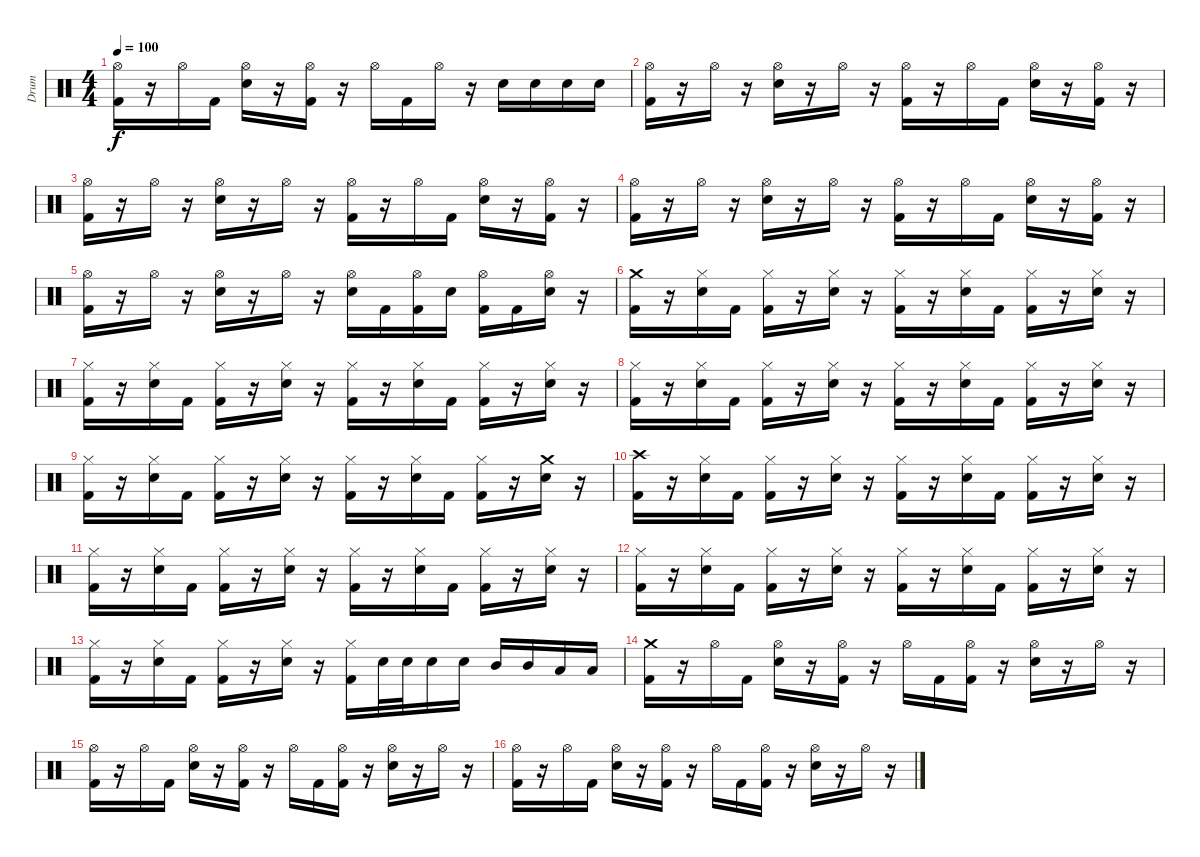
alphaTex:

\track ("Drum" "Drum") {instrument percussion}
\staff {score}
\articulation defaults
\ts (4 4)
\tempo 100
\clef neutral
\ks c
("Hi-Hat (open)" "Kick (hit) 2").16{dy f} r.16 "Hi-Hat (open)".16 "Kick (hit) 2".16 ("Hi-Hat (open)" "Electric Snare (hit)").16 r.16 ("Hi-Hat (open)" "Kick (hit) 2").16 r.16 "Hi-Hat (open)".16 "Kick (hit) 2".16 "Hi-Hat (open)".16 r.16 "Electric Snare (hit)".16 "Electric Snare (hit)".16 "Electric Snare (hit)".16 "Electric Snare (hit)".16 |
("Hi-Hat (open)" "Kick (hit) 2").16 r.16 "Hi-Hat (open)".16 r.16 ("Hi-Hat (open)" "Electric Snare (hit)").16 r.16 "Hi-Hat (open)".16 r.16 ("Hi-Hat (open)" "Kick (hit) 2").16 r.16 "Hi-Hat (open)".16 "Kick (hit) 2".16 ("Hi-Hat (open)" "Electric Snare (hit)").16 r.16 ("Hi-Hat (open)" "Kick (hit) 2").16 r.16 |
("Hi-Hat (open)" "Kick (hit) 2").16 r.16 "Hi-Hat (open)".16 r.16 ("Hi-Hat (open)" "Electric Snare (hit)").16 r.16 "Hi-Hat (open)".16 r.16 ("Hi-Hat (open)" "Kick (hit) 2").16 r.16 "Hi-Hat (open)".16 "Kick (hit) 2".16 ("Hi-Hat (open)" "Electric Snare (hit)").16 r.16 ("Hi-Hat (open)" "Kick (hit) 2").16 r.16 |
("Hi-Hat (open)" "Kick (hit) 2").16 r.16 "Hi-Hat (open)".16 r.16 ("Hi-Hat (open)" "Electric Snare (hit)").16 r.16 "Hi-Hat (open)".16 r.16 ("Hi-Hat (open)" "Kick (hit) 2").16 r.16 "Hi-Hat (open)".16 "Kick (hit) 2".16 ("Hi-Hat (open)" "Electric Snare (hit)").16 r.16 ("Hi-Hat (open)" "Kick (hit) 2").16 r.16 |
("Hi-Hat (open)" "Kick (hit) 2").16 r.16 "Hi-Hat (open)".16 r.16 ("Hi-Hat (open)" "Electric Snare (hit)").16 r.16 "Hi-Hat (open)".16 r.16 ("Hi-Hat (open)" "Electric Snare (hit)").16 "Kick (hit) 2".16 ("Hi-Hat (open)" "Kick (hit) 2").16 "Electric Snare (hit)".16 ("Hi-Hat (open)" "Kick (hit) 2").16 "Kick (hit) 2".16 ("Hi-Hat (open)" "Electric Snare (hit)").16 r.16 |
("Crash medium (hit)" "Kick (hit) 2").16 r.16 ("Hi-Hat (closed)" "Electric Snare (hit)").16 "Kick (hit) 2".16 ("Hi-Hat (closed)" "Kick (hit) 2").16 r.16 ("Hi-Hat (closed)" "Electric Snare (hit)").16 r.16 ("Hi-Hat (closed)" "Kick (hit) 2").16 r.16 ("Hi-Hat (closed)" "Electric Snare (hit)").16 "Kick (hit) 2".16 ("Hi-Hat (closed)" "Kick (hit) 2").16 r.16 ("Hi-Hat (closed)" "Electric Snare (hit)").16 r.16 |
("Hi-Hat (closed)" "Kick (hit) 2").16 r.16 ("Hi-Hat (closed)" "Electric Snare (hit)").16 "Kick (hit) 2".16 ("Hi-Hat (closed)" "Kick (hit) 2").16 r.16 ("Hi-Hat (closed)" "Electric Snare (hit)").16 r.16 ("Hi-Hat (closed)" "Kick (hit) 2").16 r.16 ("Hi-Hat (closed)" "Electric Snare (hit)").16 "Kick (hit) 2".16 ("Hi-Hat (closed)" "Kick (hit) 2").16 r.16 ("Hi-Hat (closed)" "Electric Snare (hit)").16 r.16 |
("Hi-Hat (closed)" "Kick (hit) 2").16 r.16 ("Hi-Hat (closed)" "Electric Snare (hit)").16 "Kick (hit) 2".16 ("Hi-Hat (closed)" "Kick (hit) 2").16 r.16 ("Hi-Hat (closed)" "Electric Snare (hit)").16 r.16 ("Hi-Hat (closed)" "Kick (hit) 2").16 r.16 ("Hi-Hat (closed)" "Electric Snare (hit)").16 "Kick (hit) 2".16 ("Hi-Hat (closed)" "Kick (hit) 2").16 r.16 ("Hi-Hat (closed)" "Electric Snare (hit)").16 r.16 |
("Hi-Hat (closed)" "Kick (hit) 2").16 r.16 ("Hi-Hat (closed)" "Electric Snare (hit)").16 "Kick (hit) 2".16 ("Hi-Hat (closed)" "Kick (hit) 2").16 r.16 ("Hi-Hat (closed)" "Electric Snare (hit)").16 r.16 ("Hi-Hat (closed)" "Kick (hit) 2").16 r.16 ("Hi-Hat (closed)" "Electric Snare (hit)").16 "Kick (hit) 2".16 ("Hi-Hat (closed)" "Kick (hit) 2").16 r.16 ("Crash medium (hit)" "Electric Snare (hit)").16 r.16 |
("Crash high (hit)" "Kick (hit) 2").16 r.16 ("Hi-Hat (closed)" "Electric Snare (hit)").16 "Kick (hit) 2".16 ("Hi-Hat (closed)" "Kick (hit) 2").16 r.16 ("Hi-Hat (closed)" "Electric Snare (hit)").16 r.16 ("Hi-Hat (closed)" "Kick (hit) 2").16 r.16 ("Hi-Hat (closed)" "Electric Snare (hit)").16 "Kick (hit) 2".16 ("Hi-Hat (closed)" "Kick (hit) 2").16 r.16 ("Hi-Hat (closed)" "Electric Snare (hit)").16 r.16 |
("Hi-Hat (closed)" "Kick (hit) 2").16 r.16 ("Hi-Hat (closed)" "Electric Snare (hit)").16 "Kick (hit) 2".16 ("Hi-Hat (closed)" "Kick (hit) 2").16 r.16 ("Hi-Hat (closed)" "Electric Snare (hit)").16 r.16 ("Hi-Hat (closed)" "Kick (hit) 2").16 r.16 ("Hi-Hat (closed)" "Electric Snare (hit)").16 "Kick (hit) 2".16 ("Hi-Hat (closed)" "Kick (hit) 2").16 r.16 ("Hi-Hat (closed)" "Electric Snare (hit)").16 r.16 |
("Hi-Hat (closed)" "Kick (hit) 2").16 r.16 ("Hi-Hat (closed)" "Electric Snare (hit)").16 "Kick (hit) 2".16 ("Hi-Hat (closed)" "Kick (hit) 2").16 r.16 ("Hi-Hat (closed)" "Electric Snare (hit)").16 r.16 ("Hi-Hat (closed)" "Kick (hit) 2").16 r.16 ("Hi-Hat (closed)" "Electric Snare (hit)").16 "Kick (hit) 2".16 ("Hi-Hat (closed)" "Kick (hit) 2").16 r.16 ("Hi-Hat (closed)" "Electric Snare (hit)").16 r.16 |
("Hi-Hat (closed)" "Kick (hit) 2").16 r.16 ("Hi-Hat (closed)" "Electric Snare (hit)").16 "Kick (hit) 2".16 ("Hi-Hat (closed)" "Kick (hit) 2").16 r.16 ("Hi-Hat (closed)" "Electric Snare (hit)").16 r.16 ("Hi-Hat (closed)" "Kick (hit) 2").16 "Electric Snare (hit)".32 "Electric Snare (hit)".32 "Electric Snare (hit)".16 "Electric Snare (hit)".16 "Mid Tom (hit)".16 "Mid Tom (hit)".16 "Low Floor Tom (hit)".16 "Low Floor Tom (hit)".16 |
("Crash medium (hit)" "Kick (hit) 2").16 r.16 "Hi-Hat (open)".16 "Kick (hit) 2".16 ("Hi-Hat (open)" "Electric Snare (hit)").16 r.16 ("Hi-Hat (open)" "Kick (hit) 2").16 r.16 "Hi-Hat (open)".16 "Kick (hit) 2".16 ("Hi-Hat (open)" "Kick (hit) 2").16 r.16 ("Hi-Hat (open)" "Electric Snare (hit)").16 r.16 "Hi-Hat (open)".16 r.16 |
("Hi-Hat (open)" "Kick (hit) 2").16 r.16 "Hi-Hat (open)".16 "Kick (hit) 2".16 ("Hi-Hat (open)" "Electric Snare (hit)").16 r.16 ("Hi-Hat (open)" "Kick (hit) 2").16 r.16 "Hi-Hat (open)".16 "Kick (hit) 2".16 ("Hi-Hat (open)" "Kick (hit) 2").16 r.16 ("Hi-Hat (open)" "Electric Snare (hit)").16 r.16 "Hi-Hat (open)".16 r.16 |
("Hi-Hat (open)" "Kick (hit) 2").16 r.16 "Hi-Hat (open)".16 "Kick (hit) 2".16 ("Hi-Hat (open)" "Electric Snare (hit)").16 r.16 ("Hi-Hat (open)" "Kick (hit) 2").16 r.16 "Hi-Hat (open)".16 "Kick (hit) 2".16 ("Hi-Hat (open)" "Kick (hit) 2").16 r.16 ("Hi-Hat (open)" "Electric Snare (hit)").16 r.16 "Hi-Hat (open)".16 r.16
